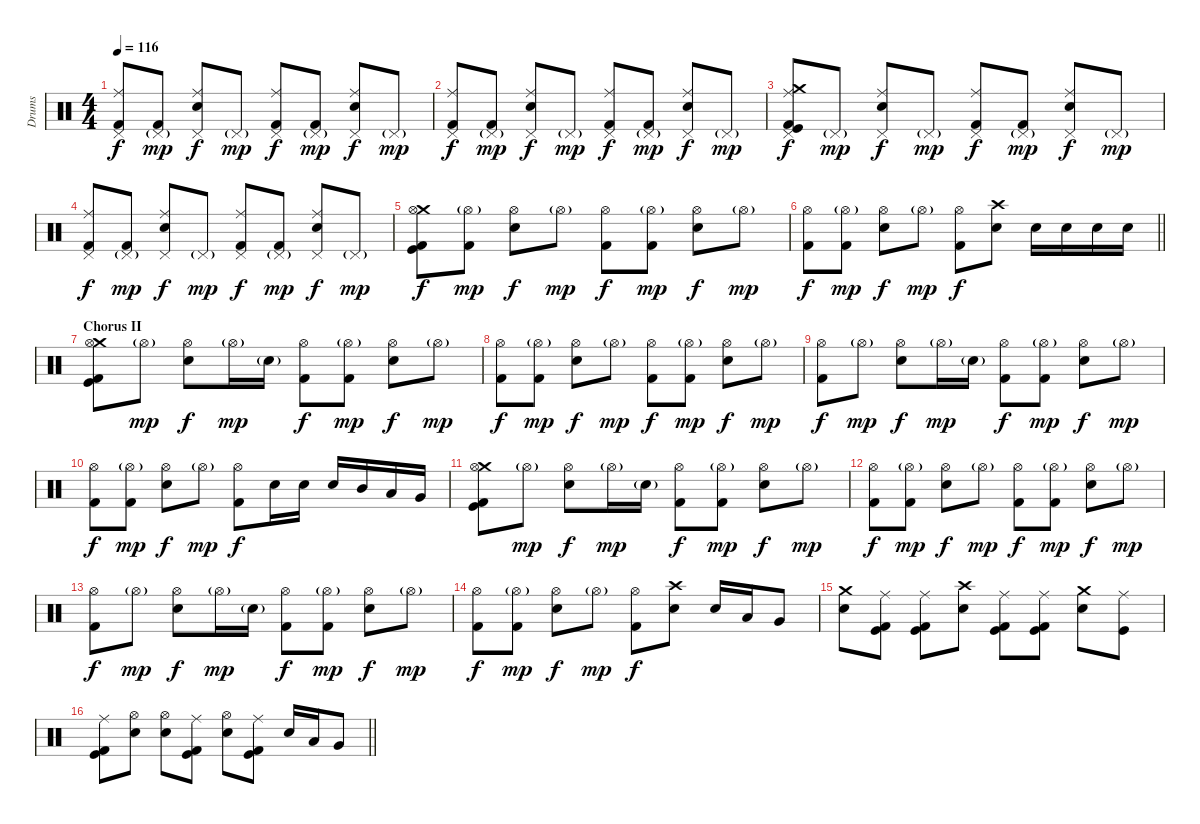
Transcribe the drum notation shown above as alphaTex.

\track ("Drums" "Drums") {instrument percussion}
\staff {score}
\articulation defaults
\ts (4 4)
\tempo 116
\clef neutral
\ks c
("Pedal Hi-Hat (hit)" "Ride (middle)" "Kick (hit) 2").8{dy f} ("Pedal Hi-Hat (hit)"{g} "Kick (hit) 2").8{dy mp} ("Pedal Hi-Hat (hit)" "Ride (middle)" "Electric Snare (hit)").8{dy f} "Pedal Hi-Hat (hit)"{g}.8{dy mp} ("Pedal Hi-Hat (hit)" "Ride (middle)" "Kick (hit) 2").8{dy f} ("Pedal Hi-Hat (hit)"{g} "Kick (hit) 2").8{dy mp} ("Pedal Hi-Hat (hit)" "Ride (middle)" "Electric Snare (hit)").8{dy f} "Pedal Hi-Hat (hit)"{g}.8{dy mp} |
("Pedal Hi-Hat (hit)" "Ride (middle)" "Kick (hit) 2").8{dy f} ("Pedal Hi-Hat (hit)"{g} "Kick (hit) 2").8{dy mp} ("Pedal Hi-Hat (hit)" "Ride (middle)" "Electric Snare (hit)").8{dy f} "Pedal Hi-Hat (hit)"{g}.8{dy mp} ("Pedal Hi-Hat (hit)" "Ride (middle)" "Kick (hit) 2").8{dy f} ("Pedal Hi-Hat (hit)"{g} "Kick (hit) 2").8{dy mp} ("Pedal Hi-Hat (hit)" "Ride (middle)" "Electric Snare (hit)").8{dy f} "Pedal Hi-Hat (hit)"{g}.8{dy mp} |
("Crash medium (hit)" "Pedal Hi-Hat (hit)" "Ride (middle)" "Kick (hit) 2" "Kick (hit)").8{dy f} "Pedal Hi-Hat (hit)"{g}.8{dy mp} ("Pedal Hi-Hat (hit)" "Ride (middle)" "Electric Snare (hit)").8{dy f} "Pedal Hi-Hat (hit)"{g}.8{dy mp} ("Pedal Hi-Hat (hit)" "Ride (middle)" "Kick (hit) 2").8{dy f} ("Pedal Hi-Hat (hit)"{g} "Kick (hit) 2").8{dy mp} ("Pedal Hi-Hat (hit)" "Ride (middle)" "Electric Snare (hit)").8{dy f} "Pedal Hi-Hat (hit)"{g}.8{dy mp} |
("Pedal Hi-Hat (hit)" "Ride (middle)" "Kick (hit) 2").8{dy f} ("Pedal Hi-Hat (hit)"{g} "Kick (hit) 2").8{dy mp} ("Pedal Hi-Hat (hit)" "Ride (middle)" "Electric Snare (hit)").8{dy f} "Pedal Hi-Hat (hit)"{g}.8{dy mp} ("Pedal Hi-Hat (hit)" "Ride (middle)" "Kick (hit) 2").8{dy f} ("Pedal Hi-Hat (hit)"{g} "Kick (hit) 2").8{dy mp} ("Pedal Hi-Hat (hit)" "Ride (middle)" "Electric Snare (hit)").8{dy f} "Pedal Hi-Hat (hit)"{g}.8{dy mp} |
("Crash medium (hit)" "Hi-Hat (open)" "Kick (hit)" "Kick (hit) 2").8{dy f} ("Hi-Hat (open)"{g} "Kick (hit) 2").8{dy mp} ("Hi-Hat (open)" "Electric Snare (hit)").8{dy f} "Hi-Hat (open)"{g}.8{dy mp} ("Hi-Hat (open)" "Kick (hit) 2").8{dy f} ("Hi-Hat (open)"{g} "Kick (hit) 2").8{dy mp} ("Hi-Hat (open)" "Electric Snare (hit)").8{dy f} "Hi-Hat (open)"{g}.8{dy mp} |
\barLineRight lightlight
("Hi-Hat (open)" "Kick (hit) 2").8{dy f} ("Hi-Hat (open)"{g} "Kick (hit) 2").8{dy mp} ("Hi-Hat (open)" "Electric Snare (hit)").8{dy f} "Hi-Hat (open)"{g}.8{dy mp} ("Hi-Hat (open)" "Kick (hit) 2").8{dy f} ("Crash high (hit)" "Electric Snare (hit)").8 "Electric Snare (hit)".16 "Electric Snare (hit)".16 "Electric Snare (hit)".16 "Electric Snare (hit)".16 |
\section ("" "Chorus II")
("Crash medium (hit)" "Hi-Hat (open)" "Kick (hit)" "Kick (hit) 2").8 "Hi-Hat (open)"{g}.8{dy mp} ("Hi-Hat (open)" "Electric Snare (hit)").8{dy f} "Hi-Hat (open)"{g}.16{dy mp} "Electric Snare (hit)"{g}.16 ("Hi-Hat (open)" "Kick (hit) 2").8{dy f} ("Hi-Hat (open)"{g} "Kick (hit) 2").8{dy mp} ("Hi-Hat (open)" "Electric Snare (hit)").8{dy f} "Hi-Hat (open)"{g}.8{dy mp} |
("Hi-Hat (open)" "Kick (hit) 2").8{dy f} ("Hi-Hat (open)"{g} "Kick (hit) 2").8{dy mp} ("Hi-Hat (open)" "Electric Snare (hit)").8{dy f} "Hi-Hat (open)"{g}.8{dy mp} ("Hi-Hat (open)" "Kick (hit) 2").8{dy f} ("Hi-Hat (open)"{g} "Kick (hit) 2").8{dy mp} ("Hi-Hat (open)" "Electric Snare (hit)").8{dy f} "Hi-Hat (open)"{g}.8{dy mp} |
("Hi-Hat (open)" "Kick (hit) 2").8{dy f} "Hi-Hat (open)"{g}.8{dy mp} ("Hi-Hat (open)" "Electric Snare (hit)").8{dy f} "Hi-Hat (open)"{g}.16{dy mp} "Electric Snare (hit)"{g}.16 ("Hi-Hat (open)" "Kick (hit) 2").8{dy f} ("Hi-Hat (open)"{g} "Kick (hit) 2").8{dy mp} ("Hi-Hat (open)" "Electric Snare (hit)").8{dy f} "Hi-Hat (open)"{g}.8{dy mp} |
("Hi-Hat (open)" "Kick (hit) 2").8{dy f} ("Hi-Hat (open)"{g} "Kick (hit) 2").8{dy mp} ("Hi-Hat (open)" "Electric Snare (hit)").8{dy f} "Hi-Hat (open)"{g}.8{dy mp} ("Hi-Hat (open)" "Kick (hit) 2").8{dy f} "Electric Snare (hit)".16 "Electric Snare (hit)".16 "Electric Snare (hit)".16 "Mid Tom (hit)".16 "Low Tom (hit)".16 "Very Low Tom (hit)".16 |
("Crash medium (hit)" "Hi-Hat (open)" "Kick (hit)" "Kick (hit) 2").8 "Hi-Hat (open)"{g}.8{dy mp} ("Hi-Hat (open)" "Electric Snare (hit)").8{dy f} "Hi-Hat (open)"{g}.16{dy mp} "Electric Snare (hit)"{g}.16 ("Hi-Hat (open)" "Kick (hit) 2").8{dy f} ("Hi-Hat (open)"{g} "Kick (hit) 2").8{dy mp} ("Hi-Hat (open)" "Electric Snare (hit)").8{dy f} "Hi-Hat (open)"{g}.8{dy mp} |
("Hi-Hat (open)" "Kick (hit) 2").8{dy f} ("Hi-Hat (open)"{g} "Kick (hit) 2").8{dy mp} ("Hi-Hat (open)" "Electric Snare (hit)").8{dy f} "Hi-Hat (open)"{g}.8{dy mp} ("Hi-Hat (open)" "Kick (hit) 2").8{dy f} ("Hi-Hat (open)"{g} "Kick (hit) 2").8{dy mp} ("Hi-Hat (open)" "Electric Snare (hit)").8{dy f} "Hi-Hat (open)"{g}.8{dy mp} |
("Hi-Hat (open)" "Kick (hit) 2").8{dy f} "Hi-Hat (open)"{g}.8{dy mp} ("Hi-Hat (open)" "Electric Snare (hit)").8{dy f} "Hi-Hat (open)"{g}.16{dy mp} "Electric Snare (hit)"{g}.16 ("Hi-Hat (open)" "Kick (hit) 2").8{dy f} ("Hi-Hat (open)"{g} "Kick (hit) 2").8{dy mp} ("Hi-Hat (open)" "Electric Snare (hit)").8{dy f} "Hi-Hat (open)"{g}.8{dy mp} |
("Hi-Hat (open)" "Kick (hit) 2").8{dy f} ("Hi-Hat (open)"{g} "Kick (hit) 2").8{dy mp} ("Hi-Hat (open)" "Electric Snare (hit)").8{dy f} "Hi-Hat (open)"{g}.8{dy mp} ("Hi-Hat (open)" "Kick (hit) 2").8{dy f} ("Crash high (hit)" "Electric Snare (hit)").8 "Electric Snare (hit)".16 "Low Tom (hit)".16 "Very Low Tom (hit)".8 |
("Crash medium (hit)" "Electric Snare (hit)").8 ("Ride (middle)" "Kick (hit)" "Kick (hit) 2").8 ("Ride (middle)" "Kick (hit)" "Kick (hit) 2").8 ("Crash high (hit)" "Electric Snare (hit)").8 ("Ride (middle)" "Kick (hit)" "Kick (hit) 2").8 ("Ride (middle)" "Kick (hit)" "Kick (hit) 2").8 ("Crash medium (hit)" "Electric Snare (hit)").8 ("Ride (middle)" "Kick (hit)").8 |
\barLineRight lightlight
("Ride (middle)" "Kick (hit)" "Kick (hit) 2").8 ("Hi-Hat (open)" "Electric Snare (hit)").8 ("Hi-Hat (open)" "Electric Snare (hit)").8 ("Ride (middle)" "Kick (hit)" "Kick (hit) 2").8 ("Hi-Hat (open)" "Electric Snare (hit)").8 ("Ride (middle)" "Kick (hit)" "Kick (hit) 2").8 "Electric Snare (hit)".16 "Low Tom (hit)".16 "Very Low Tom (hit)".8
